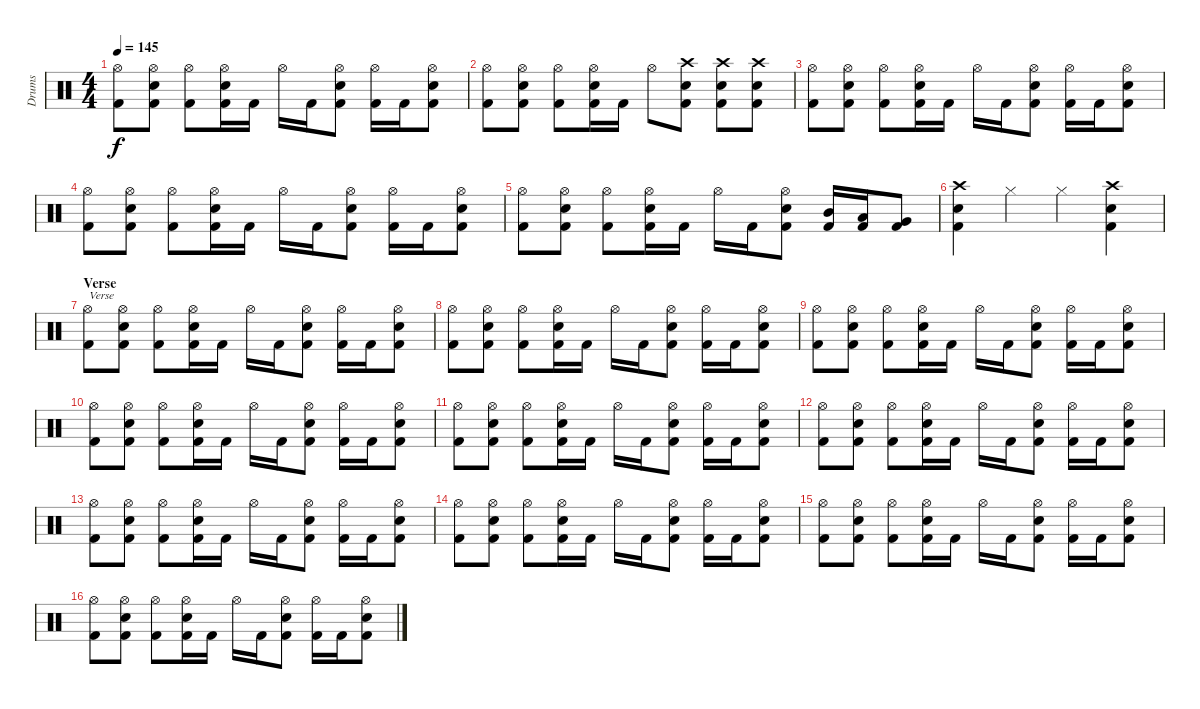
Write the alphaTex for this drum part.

\track ("Drums" "Drums") {instrument percussion}
\staff {score}
\articulation defaults
\ts (4 4)
\tempo 145
\clef neutral
\ks c
("Hi-Hat (open)" "Kick (hit) 2").8{dy f} ("Hi-Hat (open)" "Electric Snare (hit)" "Kick (hit) 2").8 ("Hi-Hat (open)" "Kick (hit) 2").8 ("Hi-Hat (open)" "Electric Snare (hit)" "Kick (hit) 2").16 "Kick (hit) 2".16 "Hi-Hat (open)".16 "Kick (hit) 2".16 ("Hi-Hat (open)" "Electric Snare (hit)" "Kick (hit) 2").8 ("Hi-Hat (open)" "Kick (hit) 2").16 "Kick (hit) 2".16 ("Hi-Hat (open)" "Electric Snare (hit)" "Kick (hit) 2").8 |
("Hi-Hat (open)" "Kick (hit) 2").8 ("Hi-Hat (open)" "Electric Snare (hit)" "Kick (hit) 2").8 ("Hi-Hat (open)" "Kick (hit) 2").8 ("Hi-Hat (open)" "Electric Snare (hit)" "Kick (hit) 2").16 "Kick (hit) 2".16 "Hi-Hat (open)".8 ("Crash high (hit)" "Electric Snare (hit)" "Kick (hit) 2").8 ("Crash high (hit)" "Electric Snare (hit)" "Kick (hit) 2").8 ("Crash high (hit)" "Electric Snare (hit)" "Kick (hit) 2").8 |
("Hi-Hat (open)" "Kick (hit) 2").8 ("Hi-Hat (open)" "Electric Snare (hit)" "Kick (hit) 2").8 ("Hi-Hat (open)" "Kick (hit) 2").8 ("Hi-Hat (open)" "Electric Snare (hit)" "Kick (hit) 2").16 "Kick (hit) 2".16 "Hi-Hat (open)".16 "Kick (hit) 2".16 ("Hi-Hat (open)" "Electric Snare (hit)" "Kick (hit) 2").8 ("Hi-Hat (open)" "Kick (hit) 2").16 "Kick (hit) 2".16 ("Hi-Hat (open)" "Electric Snare (hit)" "Kick (hit) 2").8 |
("Hi-Hat (open)" "Kick (hit) 2").8 ("Hi-Hat (open)" "Electric Snare (hit)" "Kick (hit) 2").8 ("Hi-Hat (open)" "Kick (hit) 2").8 ("Hi-Hat (open)" "Electric Snare (hit)" "Kick (hit) 2").16 "Kick (hit) 2".16 "Hi-Hat (open)".16 "Kick (hit) 2".16 ("Hi-Hat (open)" "Electric Snare (hit)" "Kick (hit) 2").8 ("Hi-Hat (open)" "Kick (hit) 2").16 "Kick (hit) 2".16 ("Hi-Hat (open)" "Electric Snare (hit)" "Kick (hit) 2").8 |
("Hi-Hat (open)" "Kick (hit) 2").8 ("Hi-Hat (open)" "Electric Snare (hit)" "Kick (hit) 2").8 ("Hi-Hat (open)" "Kick (hit) 2").8 ("Hi-Hat (open)" "Electric Snare (hit)" "Kick (hit) 2").16 "Kick (hit) 2".16 "Hi-Hat (open)".16 "Kick (hit) 2".16 ("Hi-Hat (open)" "Electric Snare (hit)" "Kick (hit) 2").8 ("Mid Tom (hit)" "Kick (hit) 2").16 ("Low Tom (hit)" "Kick (hit) 2").16 ("Very Low Tom (hit)" "Kick (hit) 2").8 |
("Crash high (hit)" "Electric Snare (hit)" "Kick (hit) 2").4 "Hi-Hat (closed)".4 "Hi-Hat (closed)".4 ("Crash high (hit)" "Electric Snare (hit)" "Kick (hit) 2").4 |
\section ("" "Verse")
("Hi-Hat (open)" "Kick (hit) 2").8{txt "Verse"} ("Hi-Hat (open)" "Electric Snare (hit)" "Kick (hit) 2").8 ("Hi-Hat (open)" "Kick (hit) 2").8 ("Hi-Hat (open)" "Electric Snare (hit)" "Kick (hit) 2").16 "Kick (hit) 2".16 "Hi-Hat (open)".16 "Kick (hit) 2".16 ("Hi-Hat (open)" "Electric Snare (hit)" "Kick (hit) 2").8 ("Hi-Hat (open)" "Kick (hit) 2").16 "Kick (hit) 2".16 ("Hi-Hat (open)" "Electric Snare (hit)" "Kick (hit) 2").8 |
("Hi-Hat (open)" "Kick (hit) 2").8 ("Hi-Hat (open)" "Electric Snare (hit)" "Kick (hit) 2").8 ("Hi-Hat (open)" "Kick (hit) 2").8 ("Hi-Hat (open)" "Electric Snare (hit)" "Kick (hit) 2").16 "Kick (hit) 2".16 "Hi-Hat (open)".16 "Kick (hit) 2".16 ("Hi-Hat (open)" "Electric Snare (hit)" "Kick (hit) 2").8 ("Hi-Hat (open)" "Kick (hit) 2").16 "Kick (hit) 2".16 ("Hi-Hat (open)" "Electric Snare (hit)" "Kick (hit) 2").8 |
("Hi-Hat (open)" "Kick (hit) 2").8 ("Hi-Hat (open)" "Electric Snare (hit)" "Kick (hit) 2").8 ("Hi-Hat (open)" "Kick (hit) 2").8 ("Hi-Hat (open)" "Electric Snare (hit)" "Kick (hit) 2").16 "Kick (hit) 2".16 "Hi-Hat (open)".16 "Kick (hit) 2".16 ("Hi-Hat (open)" "Electric Snare (hit)" "Kick (hit) 2").8 ("Hi-Hat (open)" "Kick (hit) 2").16 "Kick (hit) 2".16 ("Hi-Hat (open)" "Electric Snare (hit)" "Kick (hit) 2").8 |
("Hi-Hat (open)" "Kick (hit) 2").8 ("Hi-Hat (open)" "Electric Snare (hit)" "Kick (hit) 2").8 ("Hi-Hat (open)" "Kick (hit) 2").8 ("Hi-Hat (open)" "Electric Snare (hit)" "Kick (hit) 2").16 "Kick (hit) 2".16 "Hi-Hat (open)".16 "Kick (hit) 2".16 ("Hi-Hat (open)" "Electric Snare (hit)" "Kick (hit) 2").8 ("Hi-Hat (open)" "Kick (hit) 2").16 "Kick (hit) 2".16 ("Hi-Hat (open)" "Electric Snare (hit)" "Kick (hit) 2").8 |
("Hi-Hat (open)" "Kick (hit) 2").8 ("Hi-Hat (open)" "Electric Snare (hit)" "Kick (hit) 2").8 ("Hi-Hat (open)" "Kick (hit) 2").8 ("Hi-Hat (open)" "Electric Snare (hit)" "Kick (hit) 2").16 "Kick (hit) 2".16 "Hi-Hat (open)".16 "Kick (hit) 2".16 ("Hi-Hat (open)" "Electric Snare (hit)" "Kick (hit) 2").8 ("Hi-Hat (open)" "Kick (hit) 2").16 "Kick (hit) 2".16 ("Hi-Hat (open)" "Electric Snare (hit)" "Kick (hit) 2").8 |
("Hi-Hat (open)" "Kick (hit) 2").8 ("Hi-Hat (open)" "Electric Snare (hit)" "Kick (hit) 2").8 ("Hi-Hat (open)" "Kick (hit) 2").8 ("Hi-Hat (open)" "Electric Snare (hit)" "Kick (hit) 2").16 "Kick (hit) 2".16 "Hi-Hat (open)".16 "Kick (hit) 2".16 ("Hi-Hat (open)" "Electric Snare (hit)" "Kick (hit) 2").8 ("Hi-Hat (open)" "Kick (hit) 2").16 "Kick (hit) 2".16 ("Hi-Hat (open)" "Electric Snare (hit)" "Kick (hit) 2").8 |
("Hi-Hat (open)" "Kick (hit) 2").8 ("Hi-Hat (open)" "Electric Snare (hit)" "Kick (hit) 2").8 ("Hi-Hat (open)" "Kick (hit) 2").8 ("Hi-Hat (open)" "Electric Snare (hit)" "Kick (hit) 2").16 "Kick (hit) 2".16 "Hi-Hat (open)".16 "Kick (hit) 2".16 ("Hi-Hat (open)" "Electric Snare (hit)" "Kick (hit) 2").8 ("Hi-Hat (open)" "Kick (hit) 2").16 "Kick (hit) 2".16 ("Hi-Hat (open)" "Electric Snare (hit)" "Kick (hit) 2").8 |
("Hi-Hat (open)" "Kick (hit) 2").8 ("Hi-Hat (open)" "Electric Snare (hit)" "Kick (hit) 2").8 ("Hi-Hat (open)" "Kick (hit) 2").8 ("Hi-Hat (open)" "Electric Snare (hit)" "Kick (hit) 2").16 "Kick (hit) 2".16 "Hi-Hat (open)".16 "Kick (hit) 2".16 ("Hi-Hat (open)" "Electric Snare (hit)" "Kick (hit) 2").8 ("Hi-Hat (open)" "Kick (hit) 2").16 "Kick (hit) 2".16 ("Hi-Hat (open)" "Electric Snare (hit)" "Kick (hit) 2").8 |
("Hi-Hat (open)" "Kick (hit) 2").8 ("Hi-Hat (open)" "Electric Snare (hit)" "Kick (hit) 2").8 ("Hi-Hat (open)" "Kick (hit) 2").8 ("Hi-Hat (open)" "Electric Snare (hit)" "Kick (hit) 2").16 "Kick (hit) 2".16 "Hi-Hat (open)".16 "Kick (hit) 2".16 ("Hi-Hat (open)" "Electric Snare (hit)" "Kick (hit) 2").8 ("Hi-Hat (open)" "Kick (hit) 2").16 "Kick (hit) 2".16 ("Hi-Hat (open)" "Electric Snare (hit)" "Kick (hit) 2").8 |
("Hi-Hat (open)" "Kick (hit) 2").8 ("Hi-Hat (open)" "Electric Snare (hit)" "Kick (hit) 2").8 ("Hi-Hat (open)" "Kick (hit) 2").8 ("Hi-Hat (open)" "Electric Snare (hit)" "Kick (hit) 2").16 "Kick (hit) 2".16 "Hi-Hat (open)".16 "Kick (hit) 2".16 ("Hi-Hat (open)" "Electric Snare (hit)" "Kick (hit) 2").8 ("Hi-Hat (open)" "Kick (hit) 2").16 "Kick (hit) 2".16 ("Hi-Hat (open)" "Electric Snare (hit)" "Kick (hit) 2").8
